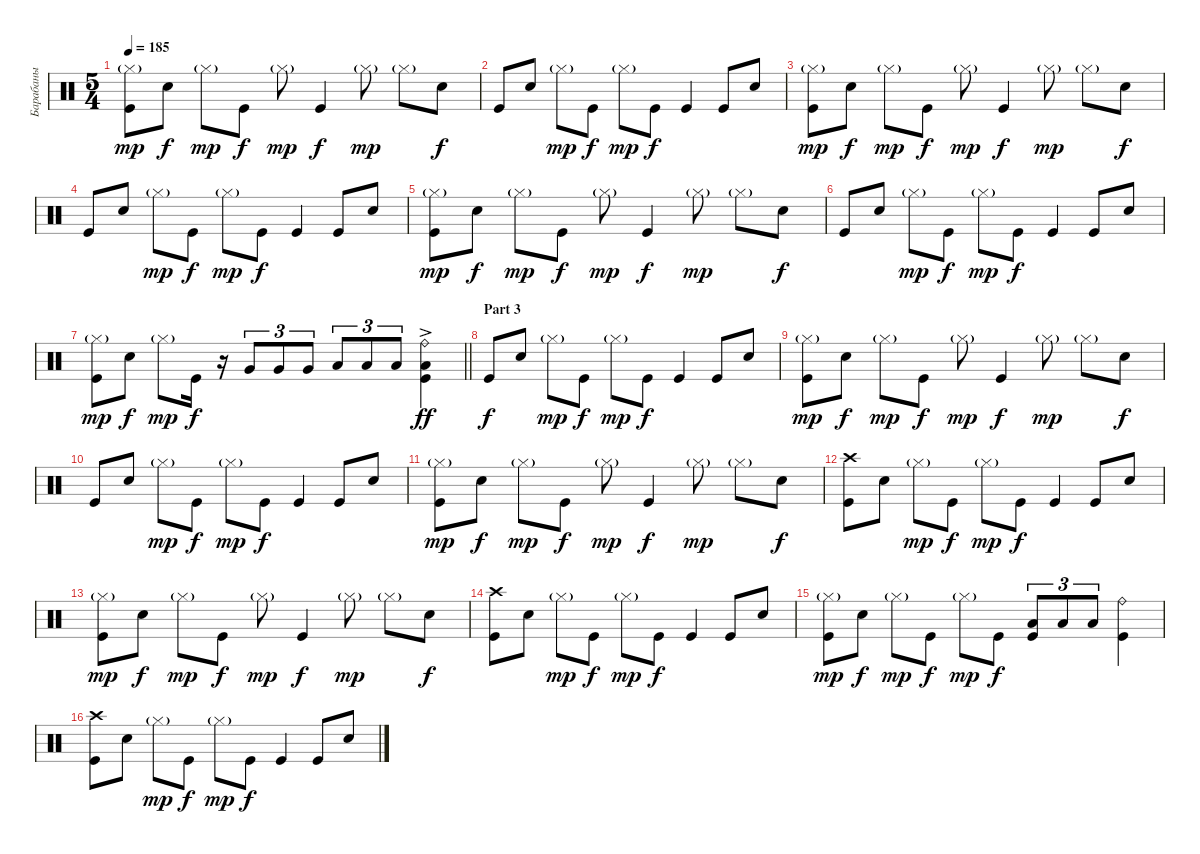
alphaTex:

\track ("Барабаны" "Барабаны") {instrument percussion}
\staff {score}
\articulation defaults
\ts (5 4)
\tempo 185
\clef neutral
\ks c
("Hi-Hat (closed)"{g} "Kick (hit)").8{dy mp} "Electric Snare (hit)".8{dy f} "Hi-Hat (closed)"{g}.8{dy mp} "Kick (hit)".8{dy f} "Hi-Hat (closed)"{g}.8{dy mp} "Kick (hit)".4{dy f} "Hi-Hat (closed)"{g}.8{dy mp} "Hi-Hat (closed)"{g}.8 "Electric Snare (hit)".8{dy f} |
"Kick (hit)".8 "Electric Snare (hit)".8 "Hi-Hat (closed)"{g}.8{dy mp} "Kick (hit)".8{dy f} "Hi-Hat (closed)"{g}.8{dy mp} "Kick (hit)".8{dy f} "Kick (hit)".4 "Kick (hit)".8 "Electric Snare (hit)".8 |
("Hi-Hat (closed)"{g} "Kick (hit)").8{dy mp} "Electric Snare (hit)".8{dy f} "Hi-Hat (closed)"{g}.8{dy mp} "Kick (hit)".8{dy f} "Hi-Hat (closed)"{g}.8{dy mp} "Kick (hit)".4{dy f} "Hi-Hat (closed)"{g}.8{dy mp} "Hi-Hat (closed)"{g}.8 "Electric Snare (hit)".8{dy f} |
"Kick (hit)".8 "Electric Snare (hit)".8 "Hi-Hat (closed)"{g}.8{dy mp} "Kick (hit)".8{dy f} "Hi-Hat (closed)"{g}.8{dy mp} "Kick (hit)".8{dy f} "Kick (hit)".4 "Kick (hit)".8 "Electric Snare (hit)".8 |
("Hi-Hat (closed)"{g} "Kick (hit)").8{dy mp} "Electric Snare (hit)".8{dy f} "Hi-Hat (closed)"{g}.8{dy mp} "Kick (hit)".8{dy f} "Hi-Hat (closed)"{g}.8{dy mp} "Kick (hit)".4{dy f} "Hi-Hat (closed)"{g}.8{dy mp} "Hi-Hat (closed)"{g}.8 "Electric Snare (hit)".8{dy f} |
"Kick (hit)".8 "Electric Snare (hit)".8 "Hi-Hat (closed)"{g}.8{dy mp} "Kick (hit)".8{dy f} "Hi-Hat (closed)"{g}.8{dy mp} "Kick (hit)".8{dy f} "Kick (hit)".4 "Kick (hit)".8 "Electric Snare (hit)".8 |
\barLineRight lightlight
("Hi-Hat (closed)"{g} "Kick (hit)").8{dy mp} "Electric Snare (hit)".8{dy f} "Hi-Hat (closed)"{g}.8{dy mp} "Kick (hit)".16{dy f} r.16 "Very Low Tom (hit)".8{tu (3 2)} "Very Low Tom (hit)".8{tu (3 2)} "Very Low Tom (hit)".8{tu (3 2)} "Low Floor Tom (hit)".8{tu (3 2)} "Low Floor Tom (hit)".8{tu (3 2)} "Low Floor Tom (hit)".8{tu (3 2)} ("Ride (bell)"{ac} "Low Floor Tom (hit)" "Kick (hit)"{ac}).4{dy ff} |
\section ("" "Part 3")
"Kick (hit)".8{dy f} "Electric Snare (hit)".8 "Hi-Hat (closed)"{g}.8{dy mp} "Kick (hit)".8{dy f} "Hi-Hat (closed)"{g}.8{dy mp} "Kick (hit)".8{dy f} "Kick (hit)".4 "Kick (hit)".8 "Electric Snare (hit)".8 |
("Hi-Hat (closed)"{g} "Kick (hit)").8{dy mp} "Electric Snare (hit)".8{dy f} "Hi-Hat (closed)"{g}.8{dy mp} "Kick (hit)".8{dy f} "Hi-Hat (closed)"{g}.8{dy mp} "Kick (hit)".4{dy f} "Hi-Hat (closed)"{g}.8{dy mp} "Hi-Hat (closed)"{g}.8 "Electric Snare (hit)".8{dy f} |
"Kick (hit)".8 "Electric Snare (hit)".8 "Hi-Hat (closed)"{g}.8{dy mp} "Kick (hit)".8{dy f} "Hi-Hat (closed)"{g}.8{dy mp} "Kick (hit)".8{dy f} "Kick (hit)".4 "Kick (hit)".8 "Electric Snare (hit)".8 |
("Hi-Hat (closed)"{g} "Kick (hit)").8{dy mp} "Electric Snare (hit)".8{dy f} "Hi-Hat (closed)"{g}.8{dy mp} "Kick (hit)".8{dy f} "Hi-Hat (closed)"{g}.8{dy mp} "Kick (hit)".4{dy f} "Hi-Hat (closed)"{g}.8{dy mp} "Hi-Hat (closed)"{g}.8 "Electric Snare (hit)".8{dy f} |
("Crash high (hit)" "Kick (hit)").8 "Electric Snare (hit)".8 "Hi-Hat (closed)"{g}.8{dy mp} "Kick (hit)".8{dy f} "Hi-Hat (closed)"{g}.8{dy mp} "Kick (hit)".8{dy f} "Kick (hit)".4 "Kick (hit)".8 "Electric Snare (hit)".8 |
("Hi-Hat (closed)"{g} "Kick (hit)").8{dy mp} "Electric Snare (hit)".8{dy f} "Hi-Hat (closed)"{g}.8{dy mp} "Kick (hit)".8{dy f} "Hi-Hat (closed)"{g}.8{dy mp} "Kick (hit)".4{dy f} "Hi-Hat (closed)"{g}.8{dy mp} "Hi-Hat (closed)"{g}.8 "Electric Snare (hit)".8{dy f} |
("Crash high (hit)" "Kick (hit)").8 "Electric Snare (hit)".8 "Hi-Hat (closed)"{g}.8{dy mp} "Kick (hit)".8{dy f} "Hi-Hat (closed)"{g}.8{dy mp} "Kick (hit)".8{dy f} "Kick (hit)".4 "Kick (hit)".8 "Electric Snare (hit)".8 |
("Hi-Hat (closed)"{g} "Kick (hit)").8{dy mp} "Electric Snare (hit)".8{dy f} "Hi-Hat (closed)"{g}.8{dy mp} "Kick (hit)".8{dy f} "Hi-Hat (closed)"{g}.8{dy mp} "Kick (hit)".8{dy f} ("Low Floor Tom (hit)" "Kick (hit)").8{tu (3 2)} "Low Floor Tom (hit)".8{tu (3 2)} "Low Floor Tom (hit)".8{tu (3 2)} ("Ride (bell)" "Kick (hit)").4 |
("Crash high (hit)" "Kick (hit)").8 "Electric Snare (hit)".8 "Hi-Hat (closed)"{g}.8{dy mp} "Kick (hit)".8{dy f} "Hi-Hat (closed)"{g}.8{dy mp} "Kick (hit)".8{dy f} "Kick (hit)".4 "Kick (hit)".8 "Electric Snare (hit)".8
